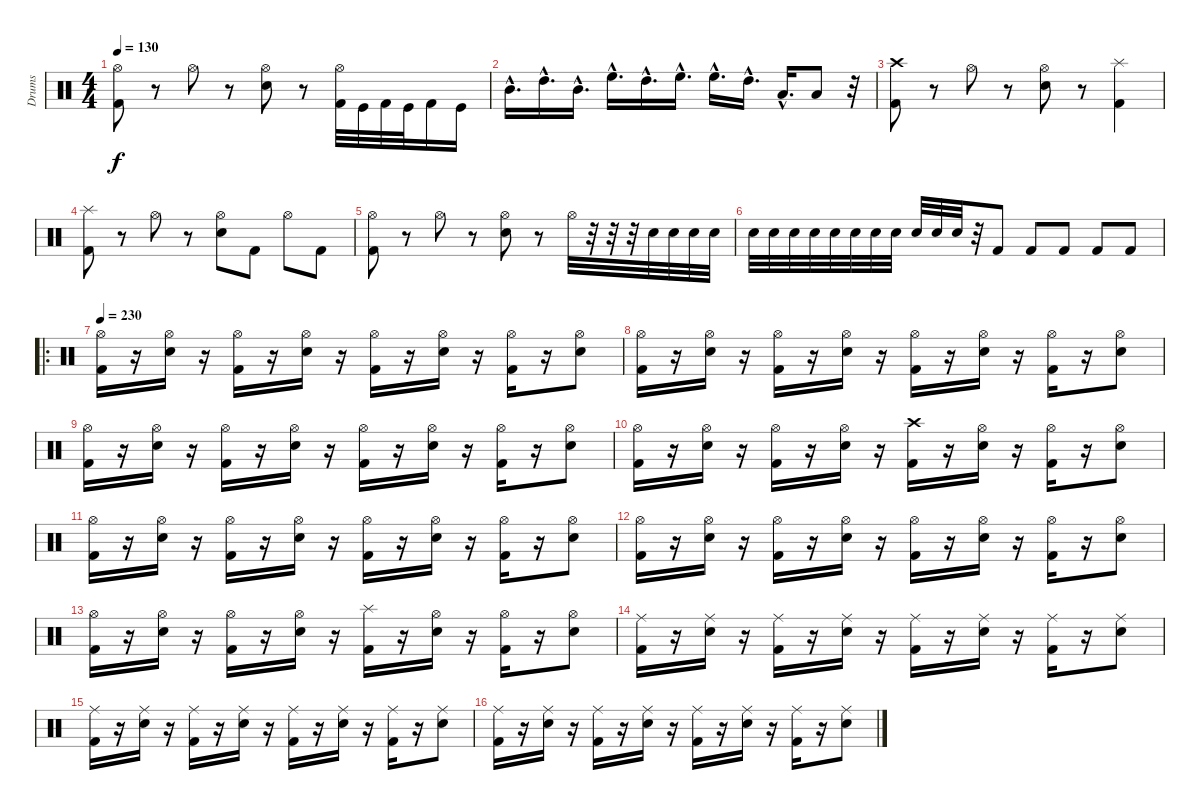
\track ("Drums" "Drums") {instrument percussion}
\staff {score}
\articulation defaults
\ts (4 4)
\tempo 130
\clef neutral
\ks c
("Hi-Hat (open)" "Kick (hit) 2").8{dy f} r.8 "Hi-Hat (open)".8 r.8 ("Hi-Hat (open)" "Electric Snare (hit)").8 r.8 ("Hi-Hat (open)" "Kick (hit) 2").32 "Kick (hit)".32 "Kick (hit) 2".32 "Kick (hit)".32 "Kick (hit) 2".16 "Kick (hit)".16 |
"Mid Tom (hit)"{hac}.16{d} "High Tom (hit)"{hac}.16{d} "Mid Tom (hit)"{hac}.16{d} "High Floor Tom (hit)"{hac}.16{d} "High Tom (hit)"{hac}.16{d} "High Floor Tom (hit)"{hac}.16{d} "High Floor Tom (hit)"{hac}.16{d} "High Tom (hit)"{hac}.16{d} "Low Tom (hit)"{hac}.16{d} "Low Floor Tom (hit)".8 r.32 |
("Crash high (hit)" "Kick (hit) 2").8 r.8 "Hi-Hat (open)".8 r.8 ("Hi-Hat (open)" "Electric Snare (hit)").8 r.8 ("Splash (hit)" "Kick (hit) 2").4 |
("Splash (hit)" "Kick (hit) 2").8 r.8 "Hi-Hat (open)".8 r.8 ("Hi-Hat (open)" "Electric Snare (hit)").8 "Kick (hit) 2".8 "Hi-Hat (open)".8 "Kick (hit) 2".8 |
("Hi-Hat (open)" "Kick (hit) 2").8 r.8 "Hi-Hat (open)".8 r.8 ("Hi-Hat (open)" "Electric Snare (hit)").8 r.8 "Hi-Hat (open)".32 r.32 r.32 r.32 "Electric Snare (hit)".32 "Electric Snare (hit)".32 "Electric Snare (hit)".32 "Electric Snare (hit)".32 |
"Electric Snare (hit)".32 "Electric Snare (hit)".32 "Electric Snare (hit)".32 "Electric Snare (hit)".32 "Electric Snare (hit)".32 "Electric Snare (hit)".32 "Electric Snare (hit)".32 "Electric Snare (hit)".32 "Electric Snare (hit)".32 "Electric Snare (hit)".32 "Electric Snare (hit)".32 r.32 "Kick (hit) 2".8 "Kick (hit) 2".8 "Kick (hit) 2".8 "Kick (hit) 2".8 "Kick (hit) 2".8 |
\ro
\tempo 230
("Hi-Hat (open)" "Kick (hit) 2").16 r.16 ("Hi-Hat (open)" "Electric Snare (hit)").16 r.16 ("Hi-Hat (open)" "Kick (hit) 2").16 r.16 ("Hi-Hat (open)" "Electric Snare (hit)").16 r.16 ("Hi-Hat (open)" "Kick (hit) 2").16 r.16 ("Hi-Hat (open)" "Electric Snare (hit)").16 r.16 ("Hi-Hat (open)" "Kick (hit) 2").16 r.16 ("Hi-Hat (open)" "Electric Snare (hit)").8 |
("Hi-Hat (open)" "Kick (hit) 2").16 r.16 ("Hi-Hat (open)" "Electric Snare (hit)").16 r.16 ("Hi-Hat (open)" "Kick (hit) 2").16 r.16 ("Hi-Hat (open)" "Electric Snare (hit)").16 r.16 ("Hi-Hat (open)" "Kick (hit) 2").16 r.16 ("Hi-Hat (open)" "Electric Snare (hit)").16 r.16 ("Hi-Hat (open)" "Kick (hit) 2").16 r.16 ("Hi-Hat (open)" "Electric Snare (hit)").8 |
("Hi-Hat (open)" "Kick (hit) 2").16 r.16 ("Hi-Hat (open)" "Electric Snare (hit)").16 r.16 ("Hi-Hat (open)" "Kick (hit) 2").16 r.16 ("Hi-Hat (open)" "Electric Snare (hit)").16 r.16 ("Hi-Hat (open)" "Kick (hit) 2").16 r.16 ("Hi-Hat (open)" "Electric Snare (hit)").16 r.16 ("Hi-Hat (open)" "Kick (hit) 2").16 r.16 ("Hi-Hat (open)" "Electric Snare (hit)").8 |
("Hi-Hat (open)" "Kick (hit) 2").16 r.16 ("Hi-Hat (open)" "Electric Snare (hit)").16 r.16 ("Hi-Hat (open)" "Kick (hit) 2").16 r.16 ("Hi-Hat (open)" "Electric Snare (hit)").16 r.16 ("Crash high (hit)" "Kick (hit) 2").16 r.16 ("Hi-Hat (open)" "Electric Snare (hit)").16 r.16 ("Hi-Hat (open)" "Kick (hit) 2").16 r.16 ("Hi-Hat (open)" "Electric Snare (hit)").8 |
("Hi-Hat (open)" "Kick (hit) 2").16 r.16 ("Hi-Hat (open)" "Electric Snare (hit)").16 r.16 ("Hi-Hat (open)" "Kick (hit) 2").16 r.16 ("Hi-Hat (open)" "Electric Snare (hit)").16 r.16 ("Hi-Hat (open)" "Kick (hit) 2").16 r.16 ("Hi-Hat (open)" "Electric Snare (hit)").16 r.16 ("Hi-Hat (open)" "Kick (hit) 2").16 r.16 ("Hi-Hat (open)" "Electric Snare (hit)").8 |
("Hi-Hat (open)" "Kick (hit) 2").16 r.16 ("Hi-Hat (open)" "Electric Snare (hit)").16 r.16 ("Hi-Hat (open)" "Kick (hit) 2").16 r.16 ("Hi-Hat (open)" "Electric Snare (hit)").16 r.16 ("Hi-Hat (open)" "Kick (hit) 2").16 r.16 ("Hi-Hat (open)" "Electric Snare (hit)").16 r.16 ("Hi-Hat (open)" "Kick (hit) 2").16 r.16 ("Hi-Hat (open)" "Electric Snare (hit)").8 |
("Hi-Hat (open)" "Kick (hit) 2").16 r.16 ("Hi-Hat (open)" "Electric Snare (hit)").16 r.16 ("Hi-Hat (open)" "Kick (hit) 2").16 r.16 ("Hi-Hat (open)" "Electric Snare (hit)").16 r.16 ("Splash (hit)" "Kick (hit) 2").16 r.16 ("Hi-Hat (open)" "Electric Snare (hit)").16 r.16 ("Hi-Hat (open)" "Kick (hit) 2").16 r.16 ("Hi-Hat (open)" "Electric Snare (hit)").8 |
("Ride (middle)" "Kick (hit) 2").16 r.16 ("Ride (middle)" "Electric Snare (hit)").16 r.16 ("Ride (middle)" "Kick (hit) 2").16 r.16 ("Ride (middle)" "Electric Snare (hit)").16 r.16 ("Ride (middle)" "Kick (hit) 2").16 r.16 ("Ride (middle)" "Electric Snare (hit)").16 r.16 ("Ride (middle)" "Kick (hit) 2").16 r.16 ("Ride (middle)" "Electric Snare (hit)").8 |
("Ride (middle)" "Kick (hit) 2").16 r.16 ("Ride (middle)" "Electric Snare (hit)").16 r.16 ("Ride (middle)" "Kick (hit) 2").16 r.16 ("Ride (middle)" "Electric Snare (hit)").16 r.16 ("Ride (middle)" "Kick (hit) 2").16 r.16 ("Ride (middle)" "Electric Snare (hit)").16 r.16 ("Ride (middle)" "Kick (hit) 2").16 r.16 ("Ride (middle)" "Electric Snare (hit)").8 |
("Ride (middle)" "Kick (hit) 2").16 r.16 ("Ride (middle)" "Electric Snare (hit)").16 r.16 ("Ride (middle)" "Kick (hit) 2").16 r.16 ("Ride (middle)" "Electric Snare (hit)").16 r.16 ("Ride (middle)" "Kick (hit) 2").16 r.16 ("Ride (middle)" "Electric Snare (hit)").16 r.16 ("Ride (middle)" "Kick (hit) 2").16 r.16 ("Ride (middle)" "Electric Snare (hit)").8
